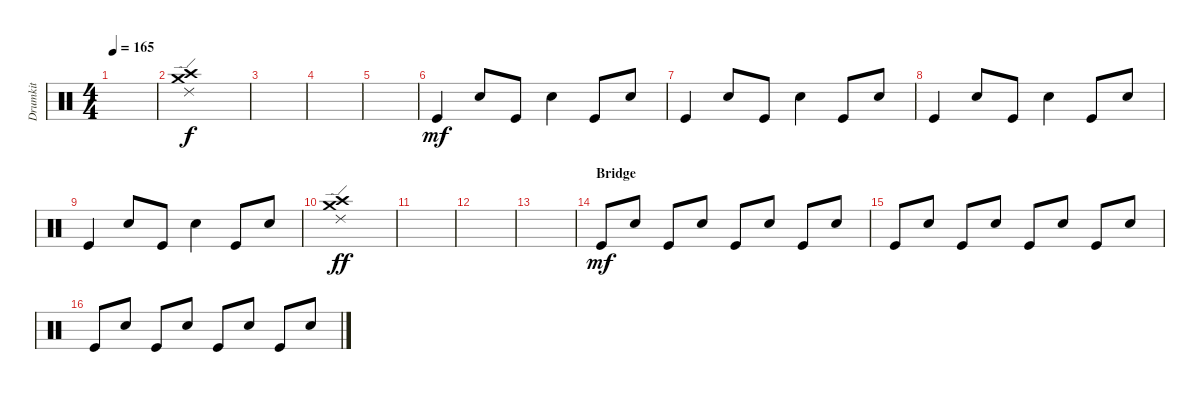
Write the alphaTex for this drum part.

\track ("Drumkit" "Drumkit") {instrument percussion}
\staff {score}
\articulation defaults
\ts (4 4)
\tempo 165
\clef neutral
\ks c
|
("Crash high (hit)" "Ride (edge) 2" "Crash medium (hit)").1 |
|
|
|
"Kick (hit)".4{dy mf} "Electric Snare (hit)".8 "Kick (hit)".8 "Electric Snare (hit)".4 "Kick (hit)".8 "Electric Snare (hit)".8 |
"Kick (hit)".4 "Electric Snare (hit)".8 "Kick (hit)".8 "Electric Snare (hit)".4 "Kick (hit)".8 "Electric Snare (hit)".8 |
"Kick (hit)".4 "Electric Snare (hit)".8 "Kick (hit)".8 "Electric Snare (hit)".4 "Kick (hit)".8 "Electric Snare (hit)".8 |
"Kick (hit)".4 "Electric Snare (hit)".8 "Kick (hit)".8 "Electric Snare (hit)".4 "Kick (hit)".8 "Electric Snare (hit)".8 |
("Crash high (hit)" "Ride (edge) 2" "Crash medium (hit)").1{dy ff} |
|
|
|
\section ("" "Bridge")
"Kick (hit)".8{dy mf} "Electric Snare (hit)".8 "Kick (hit)".8 "Electric Snare (hit)".8 "Kick (hit)".8 "Electric Snare (hit)".8 "Kick (hit)".8 "Electric Snare (hit)".8 |
"Kick (hit)".8 "Electric Snare (hit)".8 "Kick (hit)".8 "Electric Snare (hit)".8 "Kick (hit)".8 "Electric Snare (hit)".8 "Kick (hit)".8 "Electric Snare (hit)".8 |
"Kick (hit)".8 "Electric Snare (hit)".8 "Kick (hit)".8 "Electric Snare (hit)".8 "Kick (hit)".8 "Electric Snare (hit)".8 "Kick (hit)".8 "Electric Snare (hit)".8
